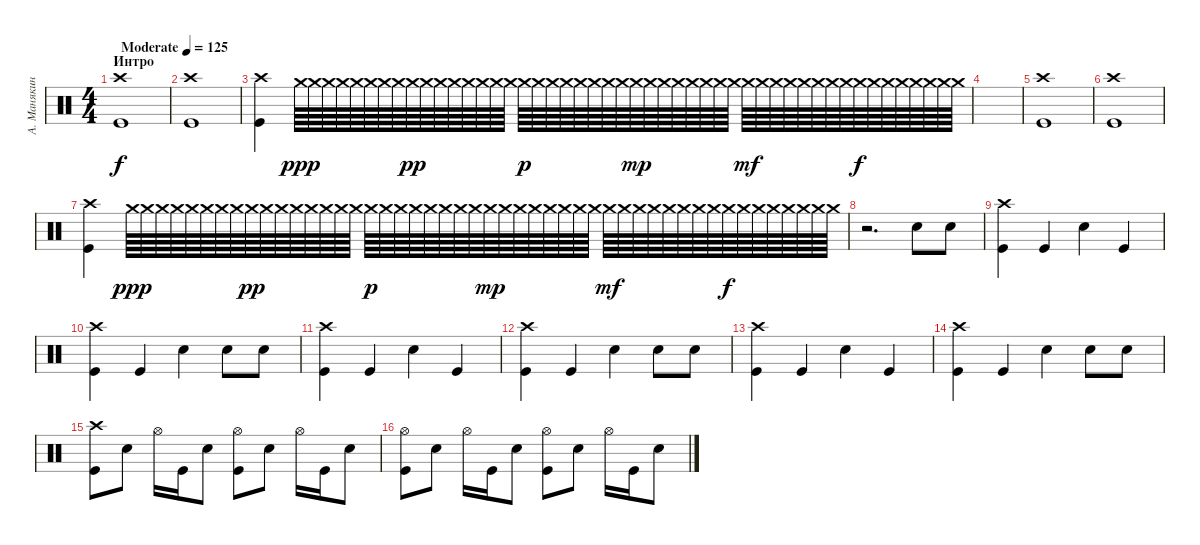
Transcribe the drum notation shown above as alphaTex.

\track ("А. Манякин" "А. Манякин") {instrument percussion}
\staff {score}
\articulation defaults
\ts (4 4)
\section ("" "Интро")
\tempo (125 "Moderate")
\clef neutral
\ks c
("Kick (hit)" "Crash high (hit)").1{dy f} |
("Kick (hit)" "Crash high (hit)").1 |
("Kick (hit)" "Crash high (hit)").4 "Crash medium (hit)".64{dy ppp} "Crash medium (hit)".64 "Crash medium (hit)".64 "Crash medium (hit)".64 "Crash medium (hit)".64 "Crash medium (hit)".64 "Crash medium (hit)".64 "Crash medium (hit)".64 "Crash medium (hit)".64{dy pp} "Crash medium (hit)".64 "Crash medium (hit)".64 "Crash medium (hit)".64 "Crash medium (hit)".64 "Crash medium (hit)".64 "Crash medium (hit)".64 "Crash medium (hit)".64 "Crash medium (hit)".64{dy p} "Crash medium (hit)".64 "Crash medium (hit)".64 "Crash medium (hit)".64 "Crash medium (hit)".64 "Crash medium (hit)".64 "Crash medium (hit)".64 "Crash medium (hit)".64 "Crash medium (hit)".64{dy mp} "Crash medium (hit)".64 "Crash medium (hit)".64 "Crash medium (hit)".64 "Crash medium (hit)".64 "Crash medium (hit)".64 "Crash medium (hit)".64 "Crash medium (hit)".64 "Crash medium (hit)".64{dy mf} "Crash medium (hit)".64 "Crash medium (hit)".64 "Crash medium (hit)".64 "Crash medium (hit)".64 "Crash medium (hit)".64 "Crash medium (hit)".64 "Crash medium (hit)".64 "Crash medium (hit)".64{dy f} "Crash medium (hit)".64 "Crash medium (hit)".64 "Crash medium (hit)".64 "Crash medium (hit)".64 "Crash medium (hit)".64 "Crash medium (hit)".64 "Crash medium (hit)".64 |
|
("Kick (hit)" "Crash high (hit)").1 |
("Kick (hit)" "Crash high (hit)").1 |
("Kick (hit)" "Crash high (hit)").4 "Crash medium (hit)".64{dy ppp} "Crash medium (hit)".64 "Crash medium (hit)".64 "Crash medium (hit)".64 "Crash medium (hit)".64 "Crash medium (hit)".64 "Crash medium (hit)".64 "Crash medium (hit)".64 "Crash medium (hit)".64{dy pp} "Crash medium (hit)".64 "Crash medium (hit)".64 "Crash medium (hit)".64 "Crash medium (hit)".64 "Crash medium (hit)".64 "Crash medium (hit)".64 "Crash medium (hit)".64 "Crash medium (hit)".64{dy p} "Crash medium (hit)".64 "Crash medium (hit)".64 "Crash medium (hit)".64 "Crash medium (hit)".64 "Crash medium (hit)".64 "Crash medium (hit)".64 "Crash medium (hit)".64 "Crash medium (hit)".64{dy mp} "Crash medium (hit)".64 "Crash medium (hit)".64 "Crash medium (hit)".64 "Crash medium (hit)".64 "Crash medium (hit)".64 "Crash medium (hit)".64 "Crash medium (hit)".64 "Crash medium (hit)".64{dy mf} "Crash medium (hit)".64 "Crash medium (hit)".64 "Crash medium (hit)".64 "Crash medium (hit)".64 "Crash medium (hit)".64 "Crash medium (hit)".64 "Crash medium (hit)".64 "Crash medium (hit)".64{dy f} "Crash medium (hit)".64 "Crash medium (hit)".64 "Crash medium (hit)".64 "Crash medium (hit)".64 "Crash medium (hit)".64 "Crash medium (hit)".64 "Crash medium (hit)".64 |
r.2{d} "Electric Snare (hit)".8 "Electric Snare (hit)".8 |
("Kick (hit)" "Crash high (hit)").4 "Kick (hit)".4 "Electric Snare (hit)".4 "Kick (hit)".4 |
("Kick (hit)" "Crash high (hit)").4 "Kick (hit)".4 "Electric Snare (hit)".4 "Electric Snare (hit)".8 "Electric Snare (hit)".8 |
("Kick (hit)" "Crash high (hit)").4 "Kick (hit)".4 "Electric Snare (hit)".4 "Kick (hit)".4 |
("Kick (hit)" "Crash high (hit)").4 "Kick (hit)".4 "Electric Snare (hit)".4 "Electric Snare (hit)".8 "Electric Snare (hit)".8 |
("Kick (hit)" "Crash high (hit)").4 "Kick (hit)".4 "Electric Snare (hit)".4 "Kick (hit)".4 |
("Kick (hit)" "Crash high (hit)").4 "Kick (hit)".4 "Electric Snare (hit)".4 "Electric Snare (hit)".8 "Electric Snare (hit)".8 |
("Kick (hit)" "Crash high (hit)").8 "Electric Snare (hit)".8 "Hi-Hat (open)".16 "Kick (hit)".16 "Electric Snare (hit)".8 ("Kick (hit)" "Hi-Hat (open)").8 "Electric Snare (hit)".8 "Hi-Hat (open)".16 "Kick (hit)".16 "Electric Snare (hit)".8 |
("Kick (hit)" "Hi-Hat (open)").8 "Electric Snare (hit)".8 "Hi-Hat (open)".16 "Kick (hit)".16 "Electric Snare (hit)".8 ("Kick (hit)" "Hi-Hat (open)").8 "Electric Snare (hit)".8 "Hi-Hat (open)".16 "Kick (hit)".16 "Electric Snare (hit)".8
